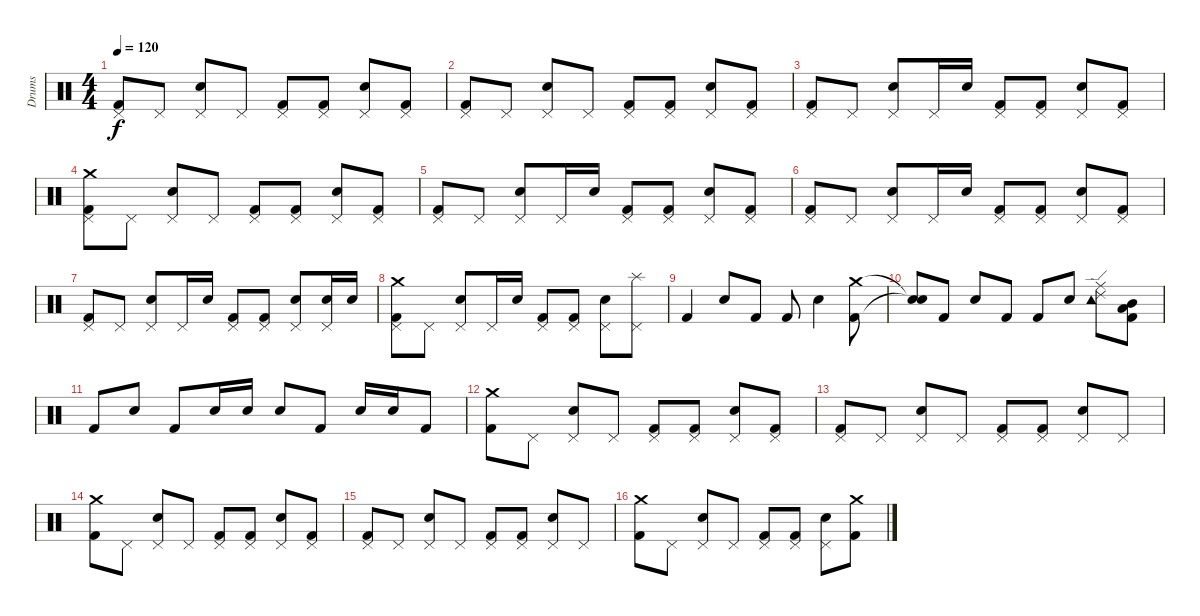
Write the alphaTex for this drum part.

\track ("Drums" "Drums") {instrument percussion}
\staff {score}
\articulation defaults
\ts (4 4)
\tempo 120
\clef neutral
\ks c
("Kick (hit) 2" "Pedal Hi-Hat (hit)").8{dy f} "Pedal Hi-Hat (hit)".8 ("Snare (hit) 2" "Pedal Hi-Hat (hit)").8 "Pedal Hi-Hat (hit)".8 ("Kick (hit) 2" "Pedal Hi-Hat (hit)").8 ("Kick (hit) 2" "Pedal Hi-Hat (hit)").8 ("Snare (hit) 2" "Pedal Hi-Hat (hit)").8 ("Kick (hit) 2" "Pedal Hi-Hat (hit)").8 |
("Kick (hit) 2" "Pedal Hi-Hat (hit)").8 "Pedal Hi-Hat (hit)".8 ("Snare (hit) 2" "Pedal Hi-Hat (hit)").8 "Pedal Hi-Hat (hit)".8 ("Kick (hit) 2" "Pedal Hi-Hat (hit)").8 ("Kick (hit) 2" "Pedal Hi-Hat (hit)").8 ("Snare (hit) 2" "Pedal Hi-Hat (hit)").8 ("Kick (hit) 2" "Pedal Hi-Hat (hit)").8 |
("Kick (hit) 2" "Pedal Hi-Hat (hit)").8 "Pedal Hi-Hat (hit)".8 ("Snare (hit) 2" "Pedal Hi-Hat (hit)").8 "Pedal Hi-Hat (hit)".16 "Snare (hit) 2".16 ("Kick (hit) 2" "Pedal Hi-Hat (hit)").8 ("Kick (hit) 2" "Pedal Hi-Hat (hit)").8 ("Snare (hit) 2" "Pedal Hi-Hat (hit)").8 ("Kick (hit) 2" "Pedal Hi-Hat (hit)").8 |
("Kick (hit) 2" "Pedal Hi-Hat (hit)" "Crash medium (hit)").8 "Pedal Hi-Hat (hit)".8 ("Snare (hit) 2" "Pedal Hi-Hat (hit)").8 "Pedal Hi-Hat (hit)".8 ("Kick (hit) 2" "Pedal Hi-Hat (hit)").8 ("Kick (hit) 2" "Pedal Hi-Hat (hit)").8 ("Snare (hit) 2" "Pedal Hi-Hat (hit)").8 ("Kick (hit) 2" "Pedal Hi-Hat (hit)").8 |
("Kick (hit) 2" "Pedal Hi-Hat (hit)").8 "Pedal Hi-Hat (hit)".8 ("Snare (hit) 2" "Pedal Hi-Hat (hit)").8 "Pedal Hi-Hat (hit)".16 "Snare (hit) 2".16 ("Kick (hit) 2" "Pedal Hi-Hat (hit)").8 ("Kick (hit) 2" "Pedal Hi-Hat (hit)").8 ("Snare (hit) 2" "Pedal Hi-Hat (hit)").8 ("Kick (hit) 2" "Pedal Hi-Hat (hit)").8 |
("Pedal Hi-Hat (hit)" "Kick (hit) 2").8 "Pedal Hi-Hat (hit)".8 ("Pedal Hi-Hat (hit)" "Snare (hit) 2").8 "Pedal Hi-Hat (hit)".16 "Snare (hit) 2".16 ("Pedal Hi-Hat (hit)" "Kick (hit) 2").8 ("Pedal Hi-Hat (hit)" "Kick (hit) 2").8 ("Pedal Hi-Hat (hit)" "Snare (hit) 2").8 ("Pedal Hi-Hat (hit)" "Kick (hit) 2").8 |
("Pedal Hi-Hat (hit)" "Kick (hit) 2").8 "Pedal Hi-Hat (hit)".8 ("Pedal Hi-Hat (hit)" "Snare (hit) 2").8 "Pedal Hi-Hat (hit)".16 "Snare (hit) 2".16 ("Pedal Hi-Hat (hit)" "Kick (hit) 2").8 ("Pedal Hi-Hat (hit)" "Kick (hit) 2").8 ("Pedal Hi-Hat (hit)" "Snare (hit) 2").8 ("Pedal Hi-Hat (hit)" "Snare (hit) 2").16 "Snare (hit) 2".16 |
("Crash medium (hit)" "Pedal Hi-Hat (hit)" "Kick (hit) 2").8 "Pedal Hi-Hat (hit)".8 ("Snare (hit) 2" "Pedal Hi-Hat (hit)").8 "Pedal Hi-Hat (hit)".16 "Snare (hit) 2".16 ("Pedal Hi-Hat (hit)" "Kick (hit) 2").8 ("Pedal Hi-Hat (hit)" "Kick (hit) 2").8 ("Pedal Hi-Hat (hit)" "Snare (hit) 2").8 ("Splash (hit)" "Pedal Hi-Hat (hit)").8 |
"Kick (hit) 2".4 "Snare (hit) 2".8 "Kick (hit) 2".8 "Kick (hit) 2".8 "Snare (hit) 2".4 ("Crash medium (hit)" "Kick (hit) 2").8 |
("Snare (hit)"{t} "Snare (hit)"{t}).8 "Kick (hit) 2".8 "Snare (hit) 2".8 "Kick (hit) 2".8 "Kick (hit) 2".8 "Snare (hit) 2".8 ("Ride (edge) 2" "Tambourine (hit)" "Ride (middle)").8 ("Kick (hit) 2" "Low Tom (hit)" "Mid Tom (hit)").8 |
"Kick (hit) 2".8 "Snare (hit) 2".8 "Kick (hit) 2".8 "Snare (hit) 2".16 "Snare (hit) 2".16 "Snare (hit) 2".8 "Kick (hit) 2".8 "Snare (hit) 2".16 "Snare (hit) 2".16 "Kick (hit) 2".8 |
("Kick (hit) 2" "Crash medium (hit)").8 "Pedal Hi-Hat (hit)".8 ("Pedal Hi-Hat (hit)" "Snare (hit) 2").8 "Pedal Hi-Hat (hit)".8 ("Pedal Hi-Hat (hit)" "Kick (hit) 2").8 ("Pedal Hi-Hat (hit)" "Kick (hit) 2").8 ("Pedal Hi-Hat (hit)" "Snare (hit) 2").8 ("Pedal Hi-Hat (hit)" "Kick (hit) 2").8 |
("Pedal Hi-Hat (hit)" "Kick (hit) 2").8 "Pedal Hi-Hat (hit)".8 ("Pedal Hi-Hat (hit)" "Snare (hit) 2").8 "Pedal Hi-Hat (hit)".8 ("Pedal Hi-Hat (hit)" "Kick (hit) 2").8 ("Pedal Hi-Hat (hit)" "Kick (hit) 2").8 ("Pedal Hi-Hat (hit)" "Snare (hit) 2").8 "Pedal Hi-Hat (hit)".8 |
("Kick (hit) 2" "Crash medium (hit)").8 "Pedal Hi-Hat (hit)".8 ("Pedal Hi-Hat (hit)" "Snare (hit) 2").8 "Pedal Hi-Hat (hit)".8 ("Pedal Hi-Hat (hit)" "Kick (hit) 2").8 ("Pedal Hi-Hat (hit)" "Kick (hit) 2").8 ("Pedal Hi-Hat (hit)" "Snare (hit) 2").8 ("Pedal Hi-Hat (hit)" "Kick (hit) 2").8 |
("Pedal Hi-Hat (hit)" "Kick (hit) 2").8 "Pedal Hi-Hat (hit)".8 ("Pedal Hi-Hat (hit)" "Snare (hit) 2").8 "Pedal Hi-Hat (hit)".8 ("Pedal Hi-Hat (hit)" "Kick (hit) 2").8 ("Pedal Hi-Hat (hit)" "Kick (hit) 2").8 ("Pedal Hi-Hat (hit)" "Snare (hit) 2").8 "Pedal Hi-Hat (hit)".8 |
("Crash medium (hit)" "Kick (hit) 2").8 "Pedal Hi-Hat (hit)".8 ("Pedal Hi-Hat (hit)" "Snare (hit) 2").8 "Pedal Hi-Hat (hit)".8 ("Kick (hit) 2" "Pedal Hi-Hat (hit)").8 ("Pedal Hi-Hat (hit)" "Kick (hit) 2").8 ("Pedal Hi-Hat (hit)" "Snare (hit) 2").8 ("Crash medium (hit)" "Kick (hit) 2").8
